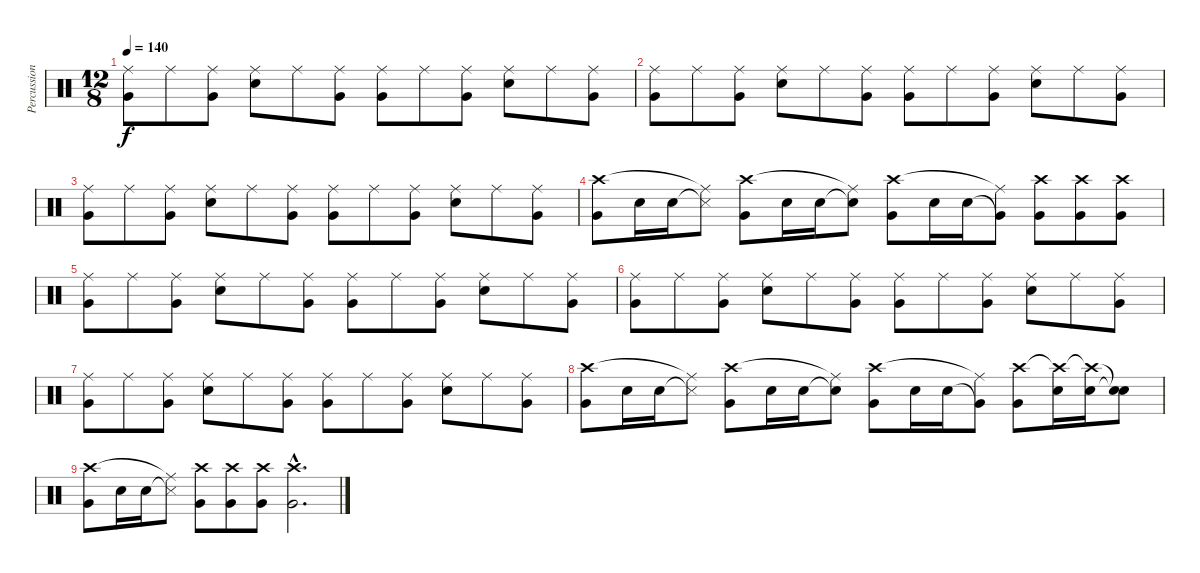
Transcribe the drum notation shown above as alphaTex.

\track ("Percussion" "Percussion") {instrument percussion}
\staff {score}
\articulation defaults
\ts (12 8)
\tempo 140
\clef neutral
\ks c
("Very Low Tom (hit)" "Ride (middle)").8{dy f} "Ride (middle)".8 ("Very Low Tom (hit)" "Ride (middle)").8 ("Snare (hit) 2" "Ride (middle)").8 "Ride (middle)".8 ("Very Low Tom (hit)" "Ride (middle)").8 ("Very Low Tom (hit)" "Ride (middle)").8 "Ride (middle)".8 ("Very Low Tom (hit)" "Ride (middle)").8 ("Snare (hit) 2" "Ride (middle)").8 "Ride (middle)".8 ("Very Low Tom (hit)" "Ride (middle)").8 |
("Very Low Tom (hit)" "Ride (middle)").8 "Ride (middle)".8 ("Very Low Tom (hit)" "Ride (middle)").8 ("Snare (hit) 2" "Ride (middle)").8 "Ride (middle)".8 ("Very Low Tom (hit)" "Ride (middle)").8 ("Very Low Tom (hit)" "Ride (middle)").8 "Ride (middle)".8 ("Very Low Tom (hit)" "Ride (middle)").8 ("Snare (hit) 2" "Ride (middle)").8 "Ride (middle)".8 ("Very Low Tom (hit)" "Ride (middle)").8 |
("Very Low Tom (hit)" "Ride (middle)").8 "Ride (middle)".8 ("Very Low Tom (hit)" "Ride (middle)").8 ("Snare (hit) 2" "Ride (middle)").8 "Ride (middle)".8 ("Very Low Tom (hit)" "Ride (middle)").8 ("Very Low Tom (hit)" "Ride (middle)").8 "Ride (middle)".8 ("Very Low Tom (hit)" "Ride (middle)").8 ("Snare (hit) 2" "Ride (middle)").8 "Ride (middle)".8 ("Very Low Tom (hit)" "Ride (middle)").8 |
("Very Low Tom (hit)" "Crash high (hit)").8 "Snare (hit) 2".16 "Snare (hit) 2".16 ("Snare (side stick) 3"{t} "Ride (middle)"{t}).8 ("Very Low Tom (hit)" "Crash high (hit)").8 "Snare (hit) 2".16 "Snare (hit) 2".16 ("Snare (hit)"{t} "Ride (middle)"{t}).8 ("Very Low Tom (hit)" "Crash high (hit)").8 "Snare (hit) 2".16 "Snare (hit) 2".16 ("Very Low Tom (hit)"{t} "Ride (middle)"{t}).8 ("Very Low Tom (hit)" "Crash high (hit)").8 ("Very Low Tom (hit)" "Crash high (hit)").8 ("Very Low Tom (hit)" "Crash high (hit)").8 |
("Very Low Tom (hit)" "Ride (middle)").8 "Ride (middle)".8 ("Very Low Tom (hit)" "Ride (middle)").8 ("Snare (hit) 2" "Ride (middle)").8 "Ride (middle)".8 ("Very Low Tom (hit)" "Ride (middle)").8 ("Very Low Tom (hit)" "Ride (middle)").8 "Ride (middle)".8 ("Very Low Tom (hit)" "Ride (middle)").8 ("Snare (hit) 2" "Ride (middle)").8 "Ride (middle)".8 ("Very Low Tom (hit)" "Ride (middle)").8 |
("Very Low Tom (hit)" "Ride (middle)").8 "Ride (middle)".8 ("Very Low Tom (hit)" "Ride (middle)").8 ("Snare (hit) 2" "Ride (middle)").8 "Ride (middle)".8 ("Very Low Tom (hit)" "Ride (middle)").8 ("Very Low Tom (hit)" "Ride (middle)").8 "Ride (middle)".8 ("Very Low Tom (hit)" "Ride (middle)").8 ("Snare (hit) 2" "Ride (middle)").8 "Ride (middle)".8 ("Very Low Tom (hit)" "Ride (middle)").8 |
("Very Low Tom (hit)" "Ride (middle)").8 "Ride (middle)".8 ("Very Low Tom (hit)" "Ride (middle)").8 ("Snare (hit) 2" "Ride (middle)").8 "Ride (middle)".8 ("Very Low Tom (hit)" "Ride (middle)").8 ("Very Low Tom (hit)" "Ride (middle)").8 "Ride (middle)".8 ("Very Low Tom (hit)" "Ride (middle)").8 ("Snare (hit) 2" "Ride (middle)").8 "Ride (middle)".8 ("Very Low Tom (hit)" "Ride (middle)").8 |
("Very Low Tom (hit)" "Crash high (hit)").8 "Snare (hit) 2".16 "Snare (hit) 2".16 ("Snare (side stick) 3"{t} "Ride (middle)"{t}).8 ("Very Low Tom (hit)" "Crash high (hit)").8 "Snare (hit) 2".16 "Snare (hit) 2".16 ("Snare (hit)"{t} "Ride (middle)"{t}).8 ("Very Low Tom (hit)" "Crash high (hit)").8 "Snare (hit) 2".16 "Snare (hit) 2".16 ("Very Low Tom (hit)"{t} "Ride (middle)"{t}).8 ("Very Low Tom (hit)" "Crash high (hit)").8 ("Snare (hit) 2" "Crash high (hit)"{t}).16 ("Snare (hit) 2" "Crash high (hit)"{t}).16 ("Snare (hit)"{t} "Snare (hit)"{t}).8 |
("Very Low Tom (hit)" "Crash high (hit)").8 "Snare (hit) 2".16 "Snare (hit) 2".16 ("Snare (side stick) 3"{t} "Ride (middle)"{t}).8 ("Very Low Tom (hit)" "Crash high (hit)").8 ("Very Low Tom (hit)" "Crash high (hit)").8 ("Very Low Tom (hit)" "Crash high (hit)").8 ("Very Low Tom (hit)"{hac} "Crash high (hit)"{hac}).2{d}
